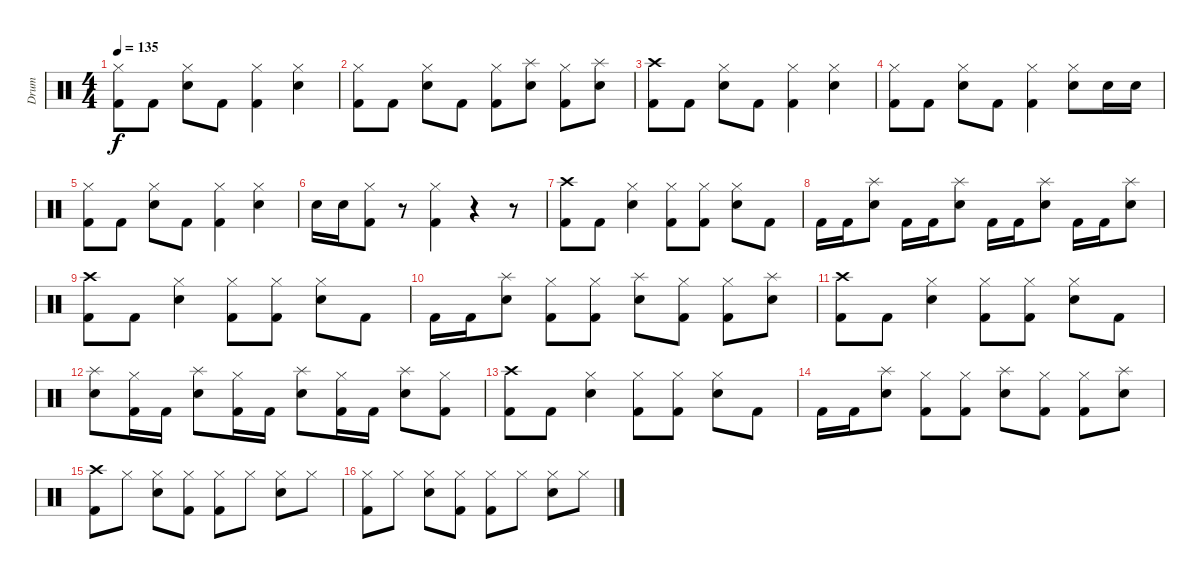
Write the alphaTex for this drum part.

\track ("Drum" "Drum") {instrument percussion}
\staff {score}
\articulation defaults
\ts (4 4)
\tempo 135
\clef neutral
\ks c
("Hi-Hat (closed)" "Kick (hit) 2").8{dy f} "Kick (hit) 2".8 ("Hi-Hat (closed)" "Electric Snare (hit)").8 "Kick (hit) 2".8 ("Hi-Hat (closed)" "Kick (hit) 2").4 ("Hi-Hat (closed)" "Electric Snare (hit)").4 |
("Hi-Hat (closed)" "Kick (hit) 2").8 "Kick (hit) 2".8 ("Hi-Hat (closed)" "Electric Snare (hit)").8 "Kick (hit) 2".8 ("Hi-Hat (closed)" "Kick (hit) 2").8 ("Splash (hit)" "Electric Snare (hit)").8 ("Hi-Hat (closed)" "Kick (hit) 2").8 ("Electric Snare (hit)" "Splash (hit)").8 |
("Crash high (hit)" "Kick (hit) 2").8 "Kick (hit) 2".8 ("Hi-Hat (closed)" "Electric Snare (hit)").8 "Kick (hit) 2".8 ("Hi-Hat (closed)" "Kick (hit) 2").4 ("Hi-Hat (closed)" "Electric Snare (hit)").4 |
("Hi-Hat (closed)" "Kick (hit) 2").8 "Kick (hit) 2".8 ("Hi-Hat (closed)" "Electric Snare (hit)").8 "Kick (hit) 2".8 ("Hi-Hat (closed)" "Kick (hit) 2").4 ("Hi-Hat (closed)" "Electric Snare (hit)").8 "Electric Snare (hit)".16 "Electric Snare (hit)".16 |
("Hi-Hat (closed)" "Kick (hit) 2").8 "Kick (hit) 2".8 ("Hi-Hat (closed)" "Electric Snare (hit)").8 "Kick (hit) 2".8 ("Hi-Hat (closed)" "Kick (hit) 2").4 ("Hi-Hat (closed)" "Electric Snare (hit)").4 |
"Electric Snare (hit)".16 "Electric Snare (hit)".16 ("Hi-Hat (closed)" "Kick (hit) 2").8 r.8 ("Hi-Hat (closed)" "Kick (hit) 2").4 r.4 r.8 |
("Crash high (hit)" "Kick (hit) 2").8 "Kick (hit) 2".8 ("Hi-Hat (closed)" "Electric Snare (hit)").4 ("Hi-Hat (closed)" "Kick (hit) 2").8 ("Hi-Hat (closed)" "Kick (hit) 2").8 ("Electric Snare (hit)" "Hi-Hat (closed)").8 "Kick (hit) 2".8 |
"Kick (hit) 2".16 "Kick (hit) 2".16 ("Splash (hit)" "Electric Snare (hit)").8 "Kick (hit) 2".16 "Kick (hit) 2".16 ("Splash (hit)" "Electric Snare (hit)").8 "Kick (hit) 2".16 "Kick (hit) 2".16 ("Splash (hit)" "Electric Snare (hit)").8 "Kick (hit) 2".16 "Kick (hit) 2".16 ("Splash (hit)" "Electric Snare (hit)").8 |
("Crash high (hit)" "Kick (hit) 2").8 "Kick (hit) 2".8 ("Hi-Hat (closed)" "Electric Snare (hit)").4 ("Hi-Hat (closed)" "Kick (hit) 2").8 ("Hi-Hat (closed)" "Kick (hit) 2").8 ("Electric Snare (hit)" "Hi-Hat (closed)").8 "Kick (hit) 2".8 |
"Kick (hit) 2".16 "Kick (hit) 2".16 ("Splash (hit)" "Electric Snare (hit)").8 ("Hi-Hat (closed)" "Kick (hit) 2").8 ("Hi-Hat (closed)" "Kick (hit) 2").8 ("Splash (hit)" "Electric Snare (hit)").8 ("Hi-Hat (closed)" "Kick (hit) 2").8 ("Hi-Hat (closed)" "Kick (hit) 2").8 ("Splash (hit)" "Electric Snare (hit)").8 |
("Crash high (hit)" "Kick (hit) 2").8 "Kick (hit) 2".8 ("Hi-Hat (closed)" "Electric Snare (hit)").4 ("Hi-Hat (closed)" "Kick (hit) 2").8 ("Hi-Hat (closed)" "Kick (hit) 2").8 ("Electric Snare (hit)" "Hi-Hat (closed)").8 "Kick (hit) 2".8 |
("Splash (hit)" "Electric Snare (hit)").8 ("Hi-Hat (closed)" "Kick (hit) 2").16 "Kick (hit) 2".16 ("Splash (hit)" "Electric Snare (hit)").8 ("Hi-Hat (closed)" "Kick (hit) 2").16 "Kick (hit) 2".16 ("Splash (hit)" "Electric Snare (hit)").8 ("Hi-Hat (closed)" "Kick (hit) 2").16 "Kick (hit) 2".16 ("Splash (hit)" "Electric Snare (hit)").8 ("Hi-Hat (closed)" "Kick (hit) 2").8 |
("Crash high (hit)" "Kick (hit) 2").8 "Kick (hit) 2".8 ("Hi-Hat (closed)" "Electric Snare (hit)").4 ("Hi-Hat (closed)" "Kick (hit) 2").8 ("Hi-Hat (closed)" "Kick (hit) 2").8 ("Electric Snare (hit)" "Hi-Hat (closed)").8 "Kick (hit) 2".8 |
"Kick (hit) 2".16 "Kick (hit) 2".16 ("Splash (hit)" "Electric Snare (hit)").8 ("Hi-Hat (closed)" "Kick (hit) 2").8 ("Hi-Hat (closed)" "Kick (hit) 2").8 ("Splash (hit)" "Electric Snare (hit)").8 ("Hi-Hat (closed)" "Kick (hit) 2").8 ("Hi-Hat (closed)" "Kick (hit) 2").8 ("Splash (hit)" "Electric Snare (hit)").8 |
("Crash high (hit)" "Kick (hit) 2").8 "Hi-Hat (closed)".8 ("Electric Snare (hit)" "Hi-Hat (closed)").8 ("Kick (hit) 2" "Hi-Hat (closed)").8 ("Kick (hit) 2" "Hi-Hat (closed)").8 "Hi-Hat (closed)".8 ("Electric Snare (hit)" "Hi-Hat (closed)").8 "Hi-Hat (closed)".8 |
("Hi-Hat (closed)" "Kick (hit) 2").8 "Hi-Hat (closed)".8 ("Hi-Hat (closed)" "Electric Snare (hit)").8 ("Hi-Hat (closed)" "Kick (hit) 2").8 ("Hi-Hat (closed)" "Kick (hit) 2").8 "Hi-Hat (closed)".8 ("Electric Snare (hit)" "Hi-Hat (closed)").8 "Hi-Hat (closed)".8
